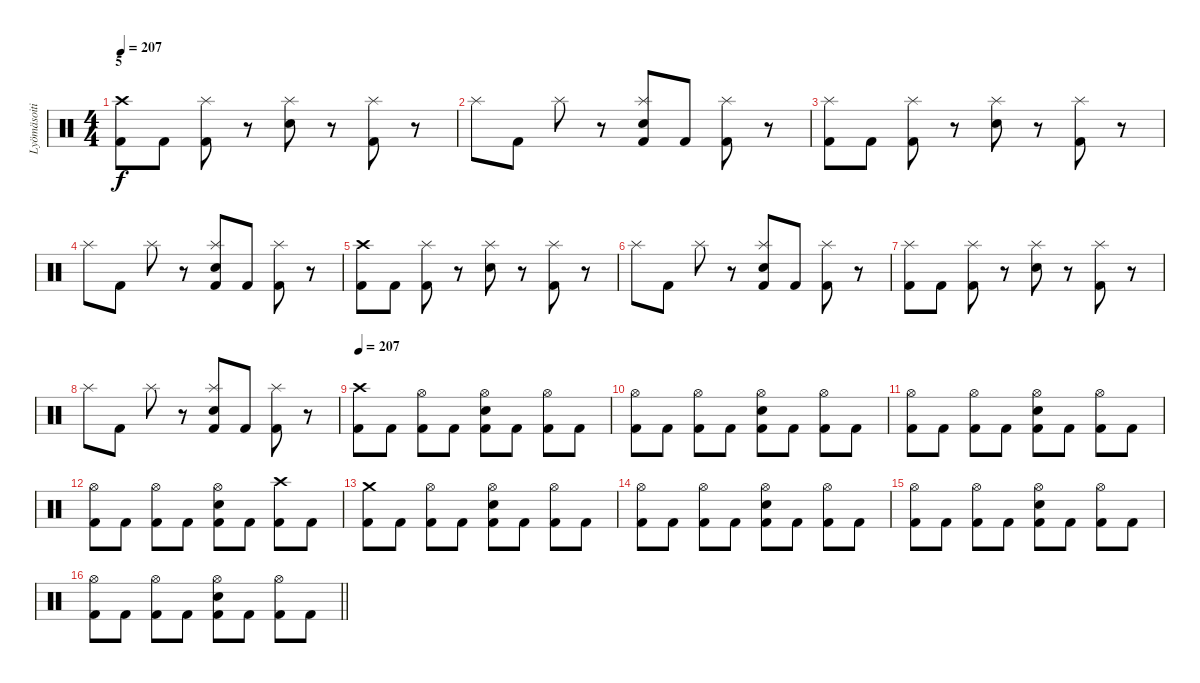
\track ("Lyömäsoitin" "Lyömäsoiti") {instrument percussion}
\staff {score}
\articulation defaults
\ts (4 4)
\section ("" "5")
\tempo 207
\clef neutral
\ks c
("Crash high (hit)" "Kick (hit) 2").8{dy f} "Kick (hit) 2".8 ("Splash (hit)" "Kick (hit) 2").8 r.8 ("Splash (hit)" "Snare (hit) 2").8 r.8 ("Splash (hit)" "Kick (hit) 2").8 r.8 |
"Splash (hit)".8 "Kick (hit) 2".8 "Splash (hit)".8 r.8 ("Splash (hit)" "Snare (hit) 2" "Kick (hit) 2").8 "Kick (hit) 2".8 ("Splash (hit)" "Kick (hit) 2").8 r.8 |
("Splash (hit)" "Kick (hit) 2").8 "Kick (hit) 2".8 ("Splash (hit)" "Kick (hit) 2").8 r.8 ("Splash (hit)" "Snare (hit) 2").8 r.8 ("Splash (hit)" "Kick (hit) 2").8 r.8 |
"Splash (hit)".8 "Kick (hit) 2".8 "Splash (hit)".8 r.8 ("Splash (hit)" "Snare (hit) 2" "Kick (hit) 2").8 "Kick (hit) 2".8 ("Splash (hit)" "Kick (hit) 2").8 r.8 |
("Crash high (hit)" "Kick (hit) 2").8 "Kick (hit) 2".8 ("Splash (hit)" "Kick (hit) 2").8 r.8 ("Splash (hit)" "Snare (hit) 2").8 r.8 ("Splash (hit)" "Kick (hit) 2").8 r.8 |
"Splash (hit)".8 "Kick (hit) 2".8 "Splash (hit)".8 r.8 ("Splash (hit)" "Snare (hit) 2" "Kick (hit) 2").8 "Kick (hit) 2".8 ("Splash (hit)" "Kick (hit) 2").8 r.8 |
("Splash (hit)" "Kick (hit) 2").8 "Kick (hit) 2".8 ("Splash (hit)" "Kick (hit) 2").8 r.8 ("Splash (hit)" "Snare (hit) 2").8 r.8 ("Splash (hit)" "Kick (hit) 2").8 r.8 |
"Splash (hit)".8 "Kick (hit) 2".8 "Splash (hit)".8 r.8 ("Splash (hit)" "Snare (hit) 2" "Kick (hit) 2").8 "Kick (hit) 2".8 ("Splash (hit)" "Kick (hit) 2").8 r.8 |
\tempo 207
("Crash high (hit)" "Kick (hit) 2").8 "Kick (hit) 2".8 ("Hi-Hat (open)" "Kick (hit) 2").8 "Kick (hit) 2".8 ("Hi-Hat (open)" "Snare (hit) 2" "Kick (hit) 2").8 "Kick (hit) 2".8 ("Hi-Hat (open)" "Kick (hit) 2").8 "Kick (hit) 2".8 |
("Hi-Hat (open)" "Kick (hit) 2").8 "Kick (hit) 2".8 ("Hi-Hat (open)" "Kick (hit) 2").8 "Kick (hit) 2".8 ("Hi-Hat (open)" "Snare (hit) 2" "Kick (hit) 2").8 "Kick (hit) 2".8 ("Hi-Hat (open)" "Kick (hit) 2").8 "Kick (hit) 2".8 |
("Hi-Hat (open)" "Kick (hit) 2").8 "Kick (hit) 2".8 ("Hi-Hat (open)" "Kick (hit) 2").8 "Kick (hit) 2".8 ("Hi-Hat (open)" "Snare (hit) 2" "Kick (hit) 2").8 "Kick (hit) 2".8 ("Hi-Hat (open)" "Kick (hit) 2").8 "Kick (hit) 2".8 |
("Hi-Hat (open)" "Kick (hit) 2").8 "Kick (hit) 2".8 ("Hi-Hat (open)" "Kick (hit) 2").8 "Kick (hit) 2".8 ("Hi-Hat (open)" "Snare (hit) 2" "Kick (hit) 2").8 "Kick (hit) 2".8 ("Crash high (hit)" "Kick (hit) 2").8 "Kick (hit) 2".8 |
("Crash medium (hit)" "Kick (hit) 2").8 "Kick (hit) 2".8 ("Hi-Hat (open)" "Kick (hit) 2").8 "Kick (hit) 2".8 ("Hi-Hat (open)" "Snare (hit) 2" "Kick (hit) 2").8 "Kick (hit) 2".8 ("Hi-Hat (open)" "Kick (hit) 2").8 "Kick (hit) 2".8 |
("Hi-Hat (open)" "Kick (hit) 2").8 "Kick (hit) 2".8 ("Hi-Hat (open)" "Kick (hit) 2").8 "Kick (hit) 2".8 ("Hi-Hat (open)" "Snare (hit) 2" "Kick (hit) 2").8 "Kick (hit) 2".8 ("Hi-Hat (open)" "Kick (hit) 2").8 "Kick (hit) 2".8 |
("Hi-Hat (open)" "Kick (hit) 2").8 "Kick (hit) 2".8 ("Hi-Hat (open)" "Kick (hit) 2").8 "Kick (hit) 2".8 ("Hi-Hat (open)" "Snare (hit) 2" "Kick (hit) 2").8 "Kick (hit) 2".8 ("Hi-Hat (open)" "Kick (hit) 2").8 "Kick (hit) 2".8 |
\barLineRight lightlight
("Hi-Hat (open)" "Kick (hit) 2").8 "Kick (hit) 2".8 ("Hi-Hat (open)" "Kick (hit) 2").8 "Kick (hit) 2".8 ("Hi-Hat (open)" "Snare (hit) 2" "Kick (hit) 2").8 "Kick (hit) 2".8 ("Hi-Hat (open)" "Kick (hit) 2").8 "Kick (hit) 2".8
